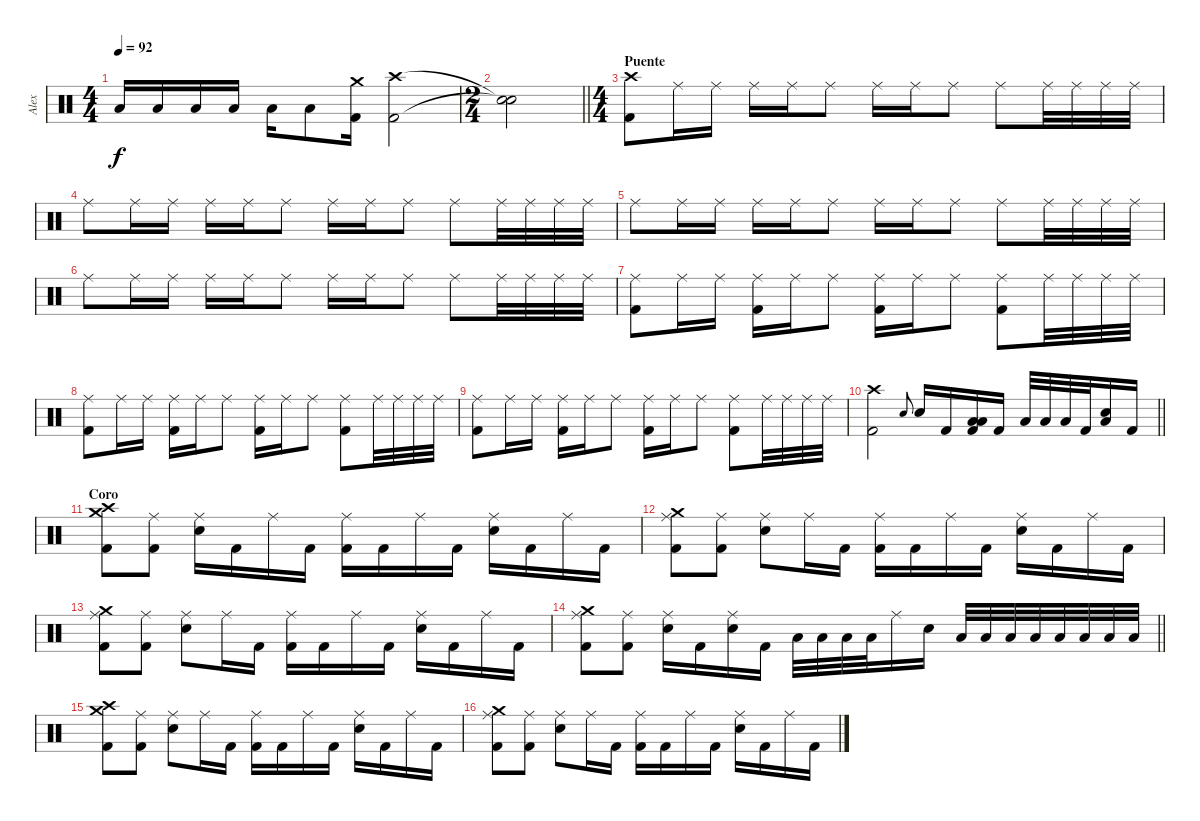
\track ("Alex" "Alex") {instrument percussion}
\staff
\articulation defaults
\ts (4 4)
\tempo 92
\clef neutral
\ks c "Low Tom (hit)".16{dy f} "Low Tom (hit)".16 "Low Tom (hit)".16 "Low Floor Tom (hit)".16 "Low Floor Tom (hit)".16 "Low Floor Tom (hit)".8
("Crash medium (hit)" "Kick (hit) 2").16 ("Crash high (hit)" "Kick (hit) 2").2 |
\ts (2 4)
\barLineRight lightlight
("Snare (hit)"{t} "Snare (hit)"{t}).2 |
\ts (4 4)
\section ("" "Puente")
("Crash high (hit)" "Kick (hit) 2").8 "Ride (middle)".16 "Ride (middle)".16 "Ride (middle)".16 "Ride (middle)".16 "Ride (middle)".8 "Ride (middle)".16 "Ride (middle)".16 "Ride (middle)".8 "Ride (middle)".8 "Ride (middle)".32 "Ride (middle)".32 "Ride (middle)".32 "Ride (middle)".32 |
"Ride (middle)".8 "Ride (middle)".16 "Ride (middle)".16 "Ride (middle)".16 "Ride (middle)".16 "Ride (middle)".8 "Ride (middle)".16 "Ride (middle)".16 "Ride (middle)".8 "Ride (middle)".8 "Ride (middle)".32 "Ride (middle)".32 "Ride (middle)".32 "Ride (middle)".32 |
"Ride (middle)".8 "Ride (middle)".16 "Ride (middle)".16 "Ride (middle)".16 "Ride (middle)".16 "Ride (middle)".8 "Ride (middle)".16 "Ride (middle)".16 "Ride (middle)".8 "Ride (middle)".8 "Ride (middle)".32 "Ride (middle)".32 "Ride (middle)".32 "Ride (middle)".32 |
"Ride (middle)".8 "Ride (middle)".16 "Ride (middle)".16 "Ride (middle)".16 "Ride (middle)".16 "Ride (middle)".8 "Ride (middle)".16 "Ride (middle)".16 "Ride (middle)".8 "Ride (middle)".8 "Ride (middle)".32 "Ride (middle)".32 "Ride (middle)".32 "Ride (middle)".32 |
("Ride (middle)" "Kick (hit) 2").8 "Ride (middle)".16 "Ride (middle)".16 ("Ride (middle)" "Kick (hit) 2").16 "Ride (middle)".16 "Ride (middle)".8 ("Ride (middle)" "Kick (hit) 2").16 "Ride (middle)".16 "Ride (middle)".8 ("Ride (middle)" "Kick (hit) 2").8 "Ride (middle)".32 "Ride (middle)".32 "Ride (middle)".32 "Ride (middle)".32 |
("Ride (middle)" "Kick (hit) 2").8 "Ride (middle)".16 "Ride (middle)".16 ("Ride (middle)" "Kick (hit) 2").16 "Ride (middle)".16 "Ride (middle)".8 ("Ride (middle)" "Kick (hit) 2").16 "Ride (middle)".16 "Ride (middle)".8 ("Ride (middle)" "Kick (hit) 2").8 "Ride (middle)".32 "Ride (middle)".32 "Ride (middle)".32 "Ride (middle)".32 |
("Ride (middle)" "Kick (hit) 2").8 "Ride (middle)".16 "Ride (middle)".16 ("Ride (middle)" "Kick (hit) 2").16 "Ride (middle)".16 "Ride (middle)".8 ("Ride (middle)" "Kick (hit) 2").16 "Ride (middle)".16 "Ride (middle)".8 ("Ride (middle)" "Kick (hit) 2").8 "Ride (middle)".32 "Ride (middle)".32 "Ride (middle)".32 "Ride (middle)".32 |
\barLineRight lightlight
("Crash high (hit)" "Kick (hit) 2").2 "Electric Snare (hit)".8{gr onbeat} "Electric Snare (hit)".16 "Kick (hit) 2".16 ("Low Tom (hit)" "Low Floor Tom (hit)" "Kick (hit) 2").16 "Kick (hit) 2".16 "Low Tom (hit)".32 "Low Tom (hit)".32 "Low Floor Tom (hit)".32 "Kick (hit) 2".32 ("Electric Snare (hit)" "Low Floor Tom (hit)").16 "Kick (hit) 2".16 |
\section ("" "Coro")
("Crash medium (hit)" "Crash high (hit)" "Kick (hit) 2").8 ("Ride (middle)" "Kick (hit) 2").8 ("Ride (middle)" "Electric Snare (hit)").16 "Kick (hit) 2".16 "Ride (middle)".16 "Kick (hit) 2".16 ("Ride (middle)" "Kick (hit) 2").16 "Kick (hit) 2".16 "Ride (middle)".16 "Kick (hit) 2".16 ("Ride (middle)" "Electric Snare (hit)").16 "Kick (hit) 2".16 "Ride (middle)".16 "Kick (hit) 2".16 |
("Crash medium (hit)" "Ride (middle)" "Kick (hit) 2").8 ("Ride (middle)" "Kick (hit) 2").8 ("Ride (middle)" "Electric Snare (hit)").8 "Ride (middle)".16 "Kick (hit) 2".16 ("Ride (middle)" "Kick (hit) 2").16 "Kick (hit) 2".16 "Ride (middle)".16 "Kick (hit) 2".16 ("Ride (middle)" "Electric Snare (hit)").16 "Kick (hit) 2".16 "Ride (middle)".16 "Kick (hit) 2".16 |
("Crash medium (hit)" "Ride (middle)" "Kick (hit) 2").8 ("Ride (middle)" "Kick (hit) 2").8 ("Ride (middle)" "Electric Snare (hit)").8 "Ride (middle)".16 "Kick (hit) 2".16 ("Ride (middle)" "Kick (hit) 2").16 "Kick (hit) 2".16 "Ride (middle)".16 "Kick (hit) 2".16 ("Ride (middle)" "Electric Snare (hit)").16 "Kick (hit) 2".16 "Ride (middle)".16 "Kick (hit) 2".16 |
\barLineRight lightlight
("Crash medium (hit)" "Ride (middle)" "Kick (hit) 2").8 ("Ride (middle)" "Kick (hit) 2").8 ("Ride (middle)" "Electric Snare (hit)").16 "Kick (hit) 2".16 ("Ride (middle)" "Electric Snare (hit)").16 "Kick (hit) 2".16 "Low Tom (hit)".32 "Low Tom (hit)".32 "Low Tom (hit)".32 "Low Tom (hit)".32 "Ride (middle)".16 "Electric Snare (hit)".16 "Low Tom (hit)".32 "Low Tom (hit)".32 "Low Tom (hit)".32 "Low Tom (hit)".32 "Low Floor Tom (hit)".32 "Low Floor Tom (hit)".32 "Low Floor Tom (hit)".32 "Low Floor Tom (hit)".32 |
("Crash medium (hit)" "Crash high (hit)" "Kick (hit) 2").8 ("Ride (middle)" "Kick (hit) 2").8 ("Ride (middle)" "Electric Snare (hit)").8 "Ride (middle)".16 "Kick (hit) 2".16 ("Ride (middle)" "Kick (hit) 2").16 "Kick (hit) 2".16 "Ride (middle)".16 "Kick (hit) 2".16 ("Ride (middle)" "Electric Snare (hit)").16 "Kick (hit) 2".16 "Ride (middle)".16 "Kick (hit) 2".16 |
("Crash medium (hit)" "Ride (middle)" "Kick (hit) 2").8 ("Ride (middle)" "Kick (hit) 2").8 ("Ride (middle)" "Electric Snare (hit)").8 "Ride (middle)".16 "Kick (hit) 2".16 ("Ride (middle)" "Kick (hit) 2").16 "Kick (hit) 2".16 "Ride (middle)".16 "Kick (hit) 2".16 ("Ride (middle)" "Electric Snare (hit)").16 "Kick (hit) 2".16 "Ride (middle)".16 "Kick (hit) 2".16
